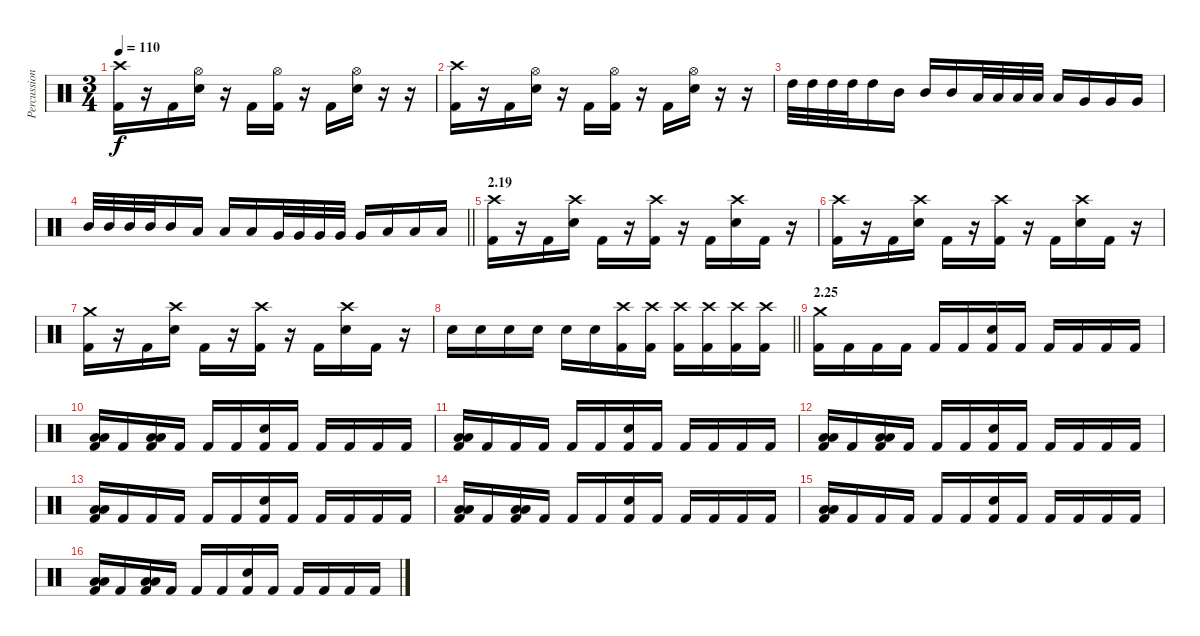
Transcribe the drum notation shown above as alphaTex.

\track ("Percussion" "Percussion") {instrument percussion}
\staff {score}
\articulation defaults
\ts (3 4)
\tempo 110
\clef neutral
\ks c
("Crash high (hit)" "Kick (hit) 2").16{dy f} r.16 "Kick (hit) 2".16 ("Hi-Hat (open)" "Snare (hit) 2").16 r.16 "Kick (hit) 2".16 ("Hi-Hat (open)" "Kick (hit) 2").16 r.16 "Kick (hit) 2".16 ("Hi-Hat (open)" "Snare (hit) 2").16 r.16 r.16 |
("Crash high (hit)" "Kick (hit) 2").16 r.16 "Kick (hit) 2".16 ("Hi-Hat (open)" "Snare (hit) 2").16 r.16 "Kick (hit) 2".16 ("Hi-Hat (open)" "Kick (hit) 2").16 r.16 "Kick (hit) 2".16 ("Hi-Hat (open)" "Snare (hit) 2").16 r.16 r.16 |
"High Tom (hit)".32 "High Tom (hit)".32 "High Tom (hit)".32 "High Tom (hit)".32 "High Tom (hit)".16 "Mid Tom (hit)".16 "Mid Tom (hit)".16 "Mid Tom (hit)".16 "Low Tom (hit)".32 "Low Tom (hit)".32 "Low Tom (hit)".32 "Low Tom (hit)".32 "Low Tom (hit)".16 "Very Low Tom (hit)".16 "Very Low Tom (hit)".16 "Very Low Tom (hit)".16 |
\barLineRight lightlight "Mid Tom (hit)".32 "Mid Tom (hit)".32 "Mid Tom (hit)".32 "Mid Tom (hit)".32 "Mid Tom (hit)".16 "Low Tom (hit)".16 "Low Tom (hit)".16 "Low Tom (hit)".16 "Very Low Tom (hit)".32 "Very Low Tom (hit)".32 "Very Low Tom (hit)".32 "Very Low Tom (hit)".32 "Very Low Tom (hit)".16 "Low Floor Tom (hit)".16 "Low Floor Tom (hit)".16 "Low Floor Tom (hit)".16
|
\section ("" "2.19")
("Crash high (hit)" "Kick (hit) 2").16 r.16 "Kick (hit) 2".16 ("Crash high (hit)" "Snare (hit) 2").16 "Kick (hit) 2".16 r.16 ("Crash high (hit)" "Kick (hit) 2").16 r.16 "Kick (hit) 2".16 ("Crash high (hit)" "Snare (hit) 2").16 "Kick (hit) 2".16 r.16 |
("Crash high (hit)" "Kick (hit) 2").16 r.16 "Kick (hit) 2".16 ("Crash high (hit)" "Snare (hit) 2").16 "Kick (hit) 2".16 r.16 ("Crash high (hit)" "Kick (hit) 2").16 r.16 "Kick (hit) 2".16 ("Crash high (hit)" "Snare (hit) 2").16 "Kick (hit) 2".16 r.16 |
("Crash medium (hit)" "Kick (hit) 2").16 r.16 "Kick (hit) 2".16 ("Crash high (hit)" "Snare (hit) 2").16 "Kick (hit) 2".16 r.16 ("Crash high (hit)" "Kick (hit) 2").16 r.16 "Kick (hit) 2".16 ("Crash high (hit)" "Snare (hit) 2").16 "Kick (hit) 2".16 r.16 |
\barLineRight lightlight "Snare (hit) 2".16 "Snare (hit) 2".16 "Snare (hit) 2".16 "Snare (hit) 2".16 "Snare (hit) 2".16 "Snare (hit) 2".16
("Crash high (hit)" "Kick (hit) 2").16 ("Crash high (hit)" "Kick (hit) 2").16 ("Crash high (hit)" "Kick (hit) 2").16 ("Crash high (hit)" "Kick (hit) 2").16 ("Crash high (hit)" "Kick (hit) 2").16 ("Crash high (hit)" "Kick (hit) 2").16 |
\section ("" "2.25")
("Crash medium (hit)" "Kick (hit) 2").16 "Kick (hit) 2".16 "Kick (hit) 2".16 "Kick (hit) 2".16 "Kick (hit) 2".16 "Kick (hit) 2".16 ("Snare (hit) 2" "Kick (hit) 2").16 "Kick (hit) 2".16 "Kick (hit) 2".16 "Kick (hit) 2".16 "Kick (hit) 2".16 "Kick (hit) 2".16 |
("Low Tom (hit)" "Low Floor Tom (hit)" "Kick (hit) 2").16 "Kick (hit) 2".16 ("Low Tom (hit)" "Low Floor Tom (hit)" "Kick (hit) 2").16 "Kick (hit) 2".16 "Kick (hit) 2".16 "Kick (hit) 2".16 ("Snare (hit) 2" "Kick (hit) 2").16 "Kick (hit) 2".16 "Kick (hit) 2".16 "Kick (hit) 2".16 "Kick (hit) 2".16 "Kick (hit) 2".16 |
("Low Tom (hit)" "Low Floor Tom (hit)" "Kick (hit) 2").16 "Kick (hit) 2".16 "Kick (hit) 2".16 "Kick (hit) 2".16 "Kick (hit) 2".16 "Kick (hit) 2".16 ("Snare (hit) 2" "Kick (hit) 2").16 "Kick (hit) 2".16 "Kick (hit) 2".16 "Kick (hit) 2".16 "Kick (hit) 2".16 "Kick (hit) 2".16 |
("Low Tom (hit)" "Low Floor Tom (hit)" "Kick (hit) 2").16 "Kick (hit) 2".16 ("Low Tom (hit)" "Low Floor Tom (hit)" "Kick (hit) 2").16 "Kick (hit) 2".16 "Kick (hit) 2".16 "Kick (hit) 2".16 ("Snare (hit) 2" "Kick (hit) 2").16 "Kick (hit) 2".16 "Kick (hit) 2".16 "Kick (hit) 2".16 "Kick (hit) 2".16 "Kick (hit) 2".16 |
("Low Tom (hit)" "Low Floor Tom (hit)" "Kick (hit) 2").16 "Kick (hit) 2".16 "Kick (hit) 2".16 "Kick (hit) 2".16 "Kick (hit) 2".16 "Kick (hit) 2".16 ("Snare (hit) 2" "Kick (hit) 2").16 "Kick (hit) 2".16 "Kick (hit) 2".16 "Kick (hit) 2".16 "Kick (hit) 2".16 "Kick (hit) 2".16 |
("Low Tom (hit)" "Low Floor Tom (hit)" "Kick (hit) 2").16 "Kick (hit) 2".16 ("Low Tom (hit)" "Low Floor Tom (hit)" "Kick (hit) 2").16 "Kick (hit) 2".16 "Kick (hit) 2".16 "Kick (hit) 2".16 ("Snare (hit) 2" "Kick (hit) 2").16 "Kick (hit) 2".16 "Kick (hit) 2".16 "Kick (hit) 2".16 "Kick (hit) 2".16 "Kick (hit) 2".16 |
("Low Tom (hit)" "Low Floor Tom (hit)" "Kick (hit) 2").16 "Kick (hit) 2".16 "Kick (hit) 2".16 "Kick (hit) 2".16 "Kick (hit) 2".16 "Kick (hit) 2".16 ("Snare (hit) 2" "Kick (hit) 2").16 "Kick (hit) 2".16 "Kick (hit) 2".16 "Kick (hit) 2".16 "Kick (hit) 2".16 "Kick (hit) 2".16 |
("Low Tom (hit)" "Low Floor Tom (hit)" "Kick (hit) 2").16 "Kick (hit) 2".16 ("Low Tom (hit)" "Low Floor Tom (hit)" "Kick (hit) 2").16 "Kick (hit) 2".16 "Kick (hit) 2".16 "Kick (hit) 2".16 ("Snare (hit) 2" "Kick (hit) 2").16 "Kick (hit) 2".16 "Kick (hit) 2".16 "Kick (hit) 2".16 "Kick (hit) 2".16 "Kick (hit) 2".16
